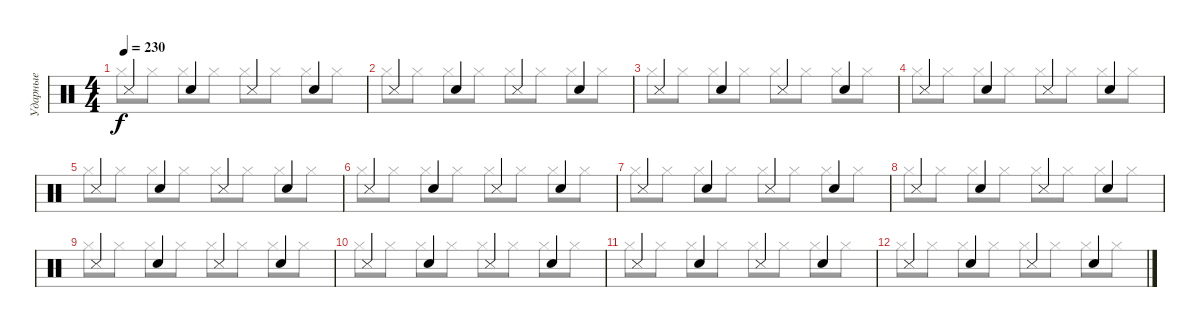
\track ("Ударные" "Ударные") {instrument percussion}
\staff {score}
\articulation defaults
\voice
\ts (4 4)
\tempo 230
\clef neutral
\ks c "Snare (side stick) 3".4{dy f} "Hand Clap (hit)".4 "Snare (side stick) 3".4 "Hand Clap (hit)".4
|
"Snare (side stick) 3".4 "Hand Clap (hit)".4 "Snare (side stick) 3".4 "Hand Clap (hit)".4 |
"Snare (side stick) 3".4 "Hand Clap (hit)".4 "Snare (side stick) 3".4 "Hand Clap (hit)".4 |
"Snare (side stick) 3".4 "Hand Clap (hit)".4 "Snare (side stick) 3".4 "Hand Clap (hit)".4 |
"Snare (side stick) 3".4 "Hand Clap (hit)".4 "Snare (side stick) 3".4 "Hand Clap (hit)".4 |
"Snare (side stick) 3".4 "Hand Clap (hit)".4 "Snare (side stick) 3".4 "Hand Clap (hit)".4 |
"Snare (side stick) 3".4 "Hand Clap (hit)".4 "Snare (side stick) 3".4 "Hand Clap (hit)".4 |
"Snare (side stick) 3".4 "Hand Clap (hit)".4 "Snare (side stick) 3".4 "Hand Clap (hit)".4 |
"Snare (side stick) 3".4 "Hand Clap (hit)".4 "Snare (side stick) 3".4 "Hand Clap (hit)".4 |
"Snare (side stick) 3".4 "Hand Clap (hit)".4 "Snare (side stick) 3".4 "Hand Clap (hit)".4 |
"Snare (side stick) 3".4 "Hand Clap (hit)".4 "Snare (side stick) 3".4 "Hand Clap (hit)".4 |
"Snare (side stick) 3".4 "Hand Clap (hit)".4 "Snare (side stick) 3".4 "Hand Clap (hit)".4
\voice
\clef neutral
\ottava regular
\simile none
\ks c "Hi-Hat (closed)".8{dy f} "Hi-Hat (closed)".8 "Hi-Hat (closed)".8 "Hi-Hat (closed)".8 "Hi-Hat (closed)".8 "Hi-Hat (closed)".8 "Hi-Hat (closed)".8 "Hi-Hat (closed)".8
|
"Hi-Hat (closed)".8 "Hi-Hat (closed)".8 "Hi-Hat (closed)".8 "Hi-Hat (closed)".8 "Hi-Hat (closed)".8 "Hi-Hat (closed)".8 "Hi-Hat (closed)".8 "Hi-Hat (closed)".8 |
"Hi-Hat (closed)".8 "Hi-Hat (closed)".8 "Hi-Hat (closed)".8 "Hi-Hat (closed)".8 "Hi-Hat (closed)".8 "Hi-Hat (closed)".8 "Hi-Hat (closed)".8 "Hi-Hat (closed)".8 |
"Hi-Hat (closed)".8 "Hi-Hat (closed)".8 "Hi-Hat (closed)".8 "Hi-Hat (closed)".8 "Hi-Hat (closed)".8 "Hi-Hat (closed)".8 "Hi-Hat (closed)".8 "Hi-Hat (closed)".8 |
"Hi-Hat (closed)".8 "Hi-Hat (closed)".8 "Hi-Hat (closed)".8 "Hi-Hat (closed)".8 "Hi-Hat (closed)".8 "Hi-Hat (closed)".8 "Hi-Hat (closed)".8 "Hi-Hat (closed)".8 |
"Hi-Hat (closed)".8 "Hi-Hat (closed)".8 "Hi-Hat (closed)".8 "Hi-Hat (closed)".8 "Hi-Hat (closed)".8 "Hi-Hat (closed)".8 "Hi-Hat (closed)".8 "Hi-Hat (closed)".8 |
"Hi-Hat (closed)".8 "Hi-Hat (closed)".8 "Hi-Hat (closed)".8 "Hi-Hat (closed)".8 "Hi-Hat (closed)".8 "Hi-Hat (closed)".8 "Hi-Hat (closed)".8 "Hi-Hat (closed)".8 |
"Hi-Hat (closed)".8 "Hi-Hat (closed)".8 "Hi-Hat (closed)".8 "Hi-Hat (closed)".8 "Hi-Hat (closed)".8 "Hi-Hat (closed)".8 "Hi-Hat (closed)".8 "Hi-Hat (closed)".8 |
"Hi-Hat (closed)".8 "Hi-Hat (closed)".8 "Hi-Hat (closed)".8 "Hi-Hat (closed)".8 "Hi-Hat (closed)".8 "Hi-Hat (closed)".8 "Hi-Hat (closed)".8 "Hi-Hat (closed)".8 |
"Hi-Hat (closed)".8 "Hi-Hat (closed)".8 "Hi-Hat (closed)".8 "Hi-Hat (closed)".8 "Hi-Hat (closed)".8 "Hi-Hat (closed)".8 "Hi-Hat (closed)".8 "Hi-Hat (closed)".8 |
"Hi-Hat (closed)".8 "Hi-Hat (closed)".8 "Hi-Hat (closed)".8 "Hi-Hat (closed)".8 "Hi-Hat (closed)".8 "Hi-Hat (closed)".8 "Hi-Hat (closed)".8 "Hi-Hat (closed)".8 |
"Hi-Hat (closed)".8 "Hi-Hat (closed)".8 "Hi-Hat (closed)".8 "Hi-Hat (closed)".8 "Hi-Hat (closed)".8 "Hi-Hat (closed)".8 "Hi-Hat (closed)".8 "Hi-Hat (closed)".8
